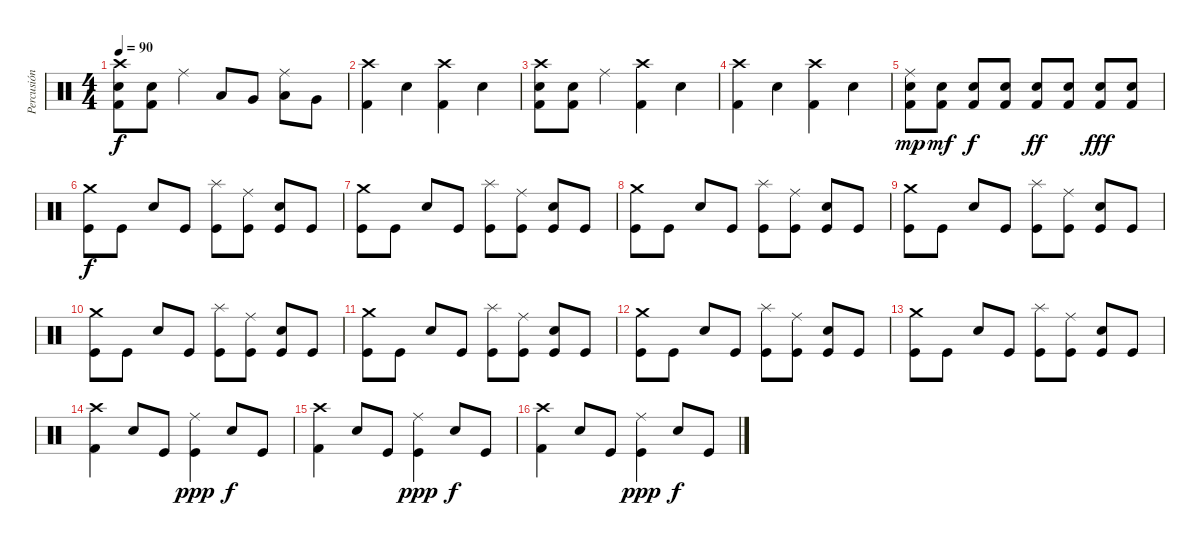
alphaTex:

\track ("Percusión" "Percusión") {instrument percussion}
\staff {score}
\articulation defaults
\ts (4 4)
\tempo 90
\clef neutral
\ks c
("Kick (hit) 2" "Snare (hit) 2" "Crash high (hit)").8{dy f} ("Kick (hit) 2" "Snare (hit) 2").8 "Ride (middle)".4 "Low Tom (hit)".8 "Very Low Tom (hit)".8 ("Low Floor Tom (hit)" "Ride (middle)").8 "Very Low Tom (hit)".8 |
("Kick (hit) 2" "Crash high (hit)").4 "Snare (hit) 2".4 ("Kick (hit) 2" "Crash high (hit)").4 "Snare (hit) 2".4 |
("Kick (hit) 2" "Snare (hit) 2" "Crash high (hit)").8 ("Kick (hit) 2" "Snare (hit) 2").8 "Ride (middle)".4 ("Kick (hit) 2" "Crash high (hit)").4 "Snare (hit) 2".4 |
("Kick (hit) 2" "Crash high (hit)").4 "Snare (hit) 2".4 ("Kick (hit) 2" "Crash high (hit)").4 "Snare (hit) 2".4 |
("Kick (hit) 2" "Snare (hit) 2" "Ride (middle)").8{dy mp} ("Kick (hit) 2" "Snare (hit) 2").8{dy mf} ("Kick (hit) 2" "Snare (hit) 2").8{dy f} ("Kick (hit) 2" "Snare (hit) 2").8 ("Kick (hit) 2" "Snare (hit) 2").8{dy ff} ("Kick (hit) 2" "Snare (hit) 2").8 ("Kick (hit) 2" "Snare (hit) 2").8{dy fff} ("Kick (hit) 2" "Snare (hit) 2").8 |
("Crash medium (hit)" "Kick (hit)").8{dy f} "Kick (hit)".8 "Snare (hit) 2".8 "Kick (hit)".8 ("Kick (hit)" "Splash (hit)").8 ("Kick (hit)" "Ride (middle)").8 ("Kick (hit)" "Snare (hit) 2").8 "Kick (hit)".8 |
("Crash medium (hit)" "Kick (hit)").8 "Kick (hit)".8 "Snare (hit) 2".8 "Kick (hit)".8 ("Kick (hit)" "Splash (hit)").8 ("Kick (hit)" "Ride (middle)").8 ("Kick (hit)" "Snare (hit) 2").8 "Kick (hit)".8 |
("Crash medium (hit)" "Kick (hit)").8 "Kick (hit)".8 "Snare (hit) 2".8 "Kick (hit)".8 ("Kick (hit)" "Splash (hit)").8 ("Kick (hit)" "Ride (middle)").8 ("Kick (hit)" "Snare (hit) 2").8 "Kick (hit)".8 |
("Crash medium (hit)" "Kick (hit)").8 "Kick (hit)".8 "Snare (hit) 2".8 "Kick (hit)".8 ("Kick (hit)" "Splash (hit)").8 ("Kick (hit)" "Ride (middle)").8 ("Kick (hit)" "Snare (hit) 2").8 "Kick (hit)".8 |
("Crash medium (hit)" "Kick (hit)").8 "Kick (hit)".8 "Snare (hit) 2".8 "Kick (hit)".8 ("Kick (hit)" "Splash (hit)").8 ("Kick (hit)" "Ride (middle)").8 ("Kick (hit)" "Snare (hit) 2").8 "Kick (hit)".8 |
("Crash medium (hit)" "Kick (hit)").8 "Kick (hit)".8 "Snare (hit) 2".8 "Kick (hit)".8 ("Kick (hit)" "Splash (hit)").8 ("Kick (hit)" "Ride (middle)").8 ("Kick (hit)" "Snare (hit) 2").8 "Kick (hit)".8 |
("Crash medium (hit)" "Kick (hit)").8 "Kick (hit)".8 "Snare (hit) 2".8 "Kick (hit)".8 ("Kick (hit)" "Splash (hit)").8 ("Kick (hit)" "Ride (middle)").8 ("Kick (hit)" "Snare (hit) 2").8 "Kick (hit)".8 |
("Crash medium (hit)" "Kick (hit)").8 "Kick (hit)".8 "Snare (hit) 2".8 "Kick (hit)".8 ("Kick (hit)" "Splash (hit)").8 ("Kick (hit)" "Ride (middle)").8 ("Kick (hit)" "Snare (hit) 2").8 "Kick (hit)".8 |
("Kick (hit) 2" "Crash high (hit)").4 "Snare (hit) 2".8 "Kick (hit)".8 ("Kick (hit)" "Ride (middle)").4{dy ppp} "Snare (hit) 2".8{dy f} "Kick (hit)".8 |
("Kick (hit) 2" "Crash high (hit)").4 "Snare (hit) 2".8 "Kick (hit)".8 ("Kick (hit)" "Ride (middle)").4{dy ppp} "Snare (hit) 2".8{dy f} "Kick (hit)".8 |
("Kick (hit) 2" "Crash high (hit)").4 "Snare (hit) 2".8 "Kick (hit)".8 ("Kick (hit)" "Ride (middle)").4{dy ppp} "Snare (hit) 2".8{dy f} "Kick (hit)".8
